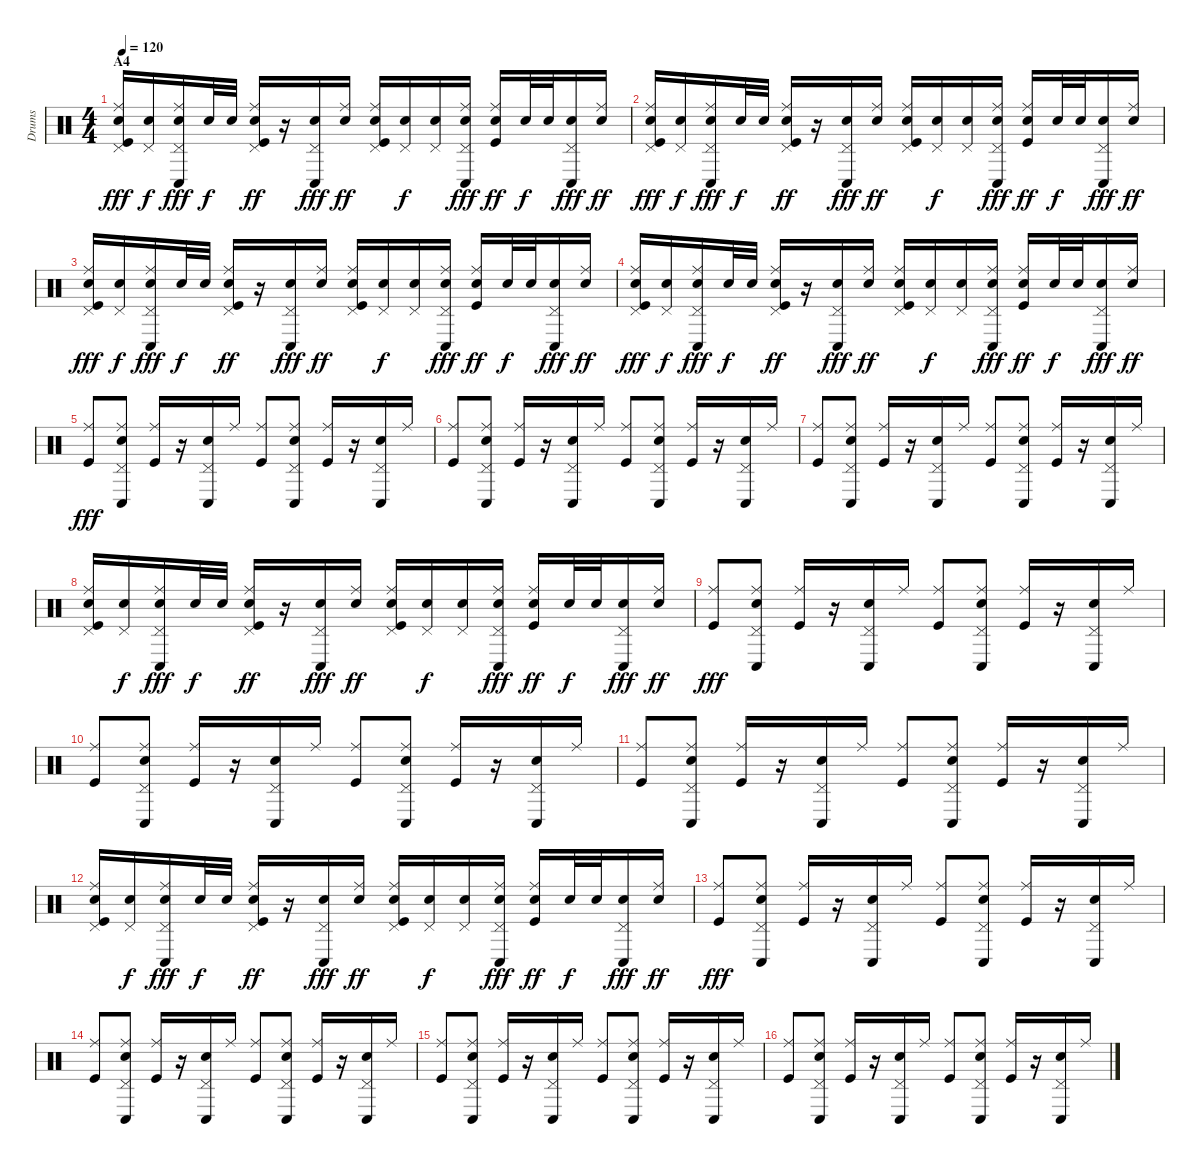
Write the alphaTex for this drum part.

\track ("Drums" "Drums") {instrument percussion}
\staff {score}
\articulation defaults
\ts (4 4)
\section ("" "A4")
\tempo 120
\clef neutral
\ks c
("Ride (middle)" "Pedal Hi-Hat (hit)" "Electric Snare (hit)" "Kick (hit)").16{dy fff} ("Pedal Hi-Hat (hit)" "Electric Snare (hit)").16{dy f} ("Ride (middle)" "Pedal Hi-Hat (hit)" "Conga low (hit)" "Electric Snare (hit)").16{dy fff} "Electric Snare (hit)".32{dy f} "Electric Snare (hit)".32 ("Ride (middle)" "Pedal Hi-Hat (hit)" "Electric Snare (hit)" "Kick (hit)").16{dy ff} r.16 ("Pedal Hi-Hat (hit)" "Conga low (hit)" "Electric Snare (hit)").16{dy fff} ("Ride (middle)" "Electric Snare (hit)").16{dy ff} ("Ride (middle)" "Pedal Hi-Hat (hit)" "Electric Snare (hit)" "Kick (hit)").16 ("Pedal Hi-Hat (hit)" "Electric Snare (hit)").16{dy f} ("Pedal Hi-Hat (hit)" "Electric Snare (hit)").16 ("Ride (middle)" "Pedal Hi-Hat (hit)" "Conga low (hit)" "Electric Snare (hit)").16{dy fff} ("Ride (middle)" "Electric Snare (hit)" "Kick (hit)").16{dy ff} "Electric Snare (hit)".32{dy f} "Electric Snare (hit)".32 ("Pedal Hi-Hat (hit)" "Conga low (hit)" "Electric Snare (hit)").16{dy fff} ("Ride (middle)" "Electric Snare (hit)").16{dy ff} |
("Ride (middle)" "Pedal Hi-Hat (hit)" "Electric Snare (hit)" "Kick (hit)").16{dy fff} ("Pedal Hi-Hat (hit)" "Electric Snare (hit)").16{dy f} ("Ride (middle)" "Pedal Hi-Hat (hit)" "Conga low (hit)" "Electric Snare (hit)").16{dy fff} "Electric Snare (hit)".32{dy f} "Electric Snare (hit)".32 ("Ride (middle)" "Pedal Hi-Hat (hit)" "Electric Snare (hit)" "Kick (hit)").16{dy ff} r.16 ("Pedal Hi-Hat (hit)" "Conga low (hit)" "Electric Snare (hit)").16{dy fff} ("Ride (middle)" "Electric Snare (hit)").16{dy ff} ("Ride (middle)" "Pedal Hi-Hat (hit)" "Electric Snare (hit)" "Kick (hit)").16 ("Pedal Hi-Hat (hit)" "Electric Snare (hit)").16{dy f} ("Pedal Hi-Hat (hit)" "Electric Snare (hit)").16 ("Ride (middle)" "Pedal Hi-Hat (hit)" "Conga low (hit)" "Electric Snare (hit)").16{dy fff} ("Ride (middle)" "Electric Snare (hit)" "Kick (hit)").16{dy ff} "Electric Snare (hit)".32{dy f} "Electric Snare (hit)".32 ("Pedal Hi-Hat (hit)" "Conga low (hit)" "Electric Snare (hit)").16{dy fff} ("Ride (middle)" "Electric Snare (hit)").16{dy ff} |
("Ride (middle)" "Pedal Hi-Hat (hit)" "Electric Snare (hit)" "Kick (hit)").16{dy fff} ("Pedal Hi-Hat (hit)" "Electric Snare (hit)").16{dy f} ("Ride (middle)" "Pedal Hi-Hat (hit)" "Conga low (hit)" "Electric Snare (hit)").16{dy fff} "Electric Snare (hit)".32{dy f} "Electric Snare (hit)".32 ("Ride (middle)" "Pedal Hi-Hat (hit)" "Electric Snare (hit)" "Kick (hit)").16{dy ff} r.16 ("Pedal Hi-Hat (hit)" "Conga low (hit)" "Electric Snare (hit)").16{dy fff} ("Ride (middle)" "Electric Snare (hit)").16{dy ff} ("Ride (middle)" "Pedal Hi-Hat (hit)" "Electric Snare (hit)" "Kick (hit)").16 ("Pedal Hi-Hat (hit)" "Electric Snare (hit)").16{dy f} ("Pedal Hi-Hat (hit)" "Electric Snare (hit)").16 ("Ride (middle)" "Pedal Hi-Hat (hit)" "Conga low (hit)" "Electric Snare (hit)").16{dy fff} ("Ride (middle)" "Electric Snare (hit)" "Kick (hit)").16{dy ff} "Electric Snare (hit)".32{dy f} "Electric Snare (hit)".32 ("Pedal Hi-Hat (hit)" "Conga low (hit)" "Electric Snare (hit)").16{dy fff} ("Ride (middle)" "Electric Snare (hit)").16{dy ff} |
("Ride (middle)" "Pedal Hi-Hat (hit)" "Electric Snare (hit)" "Kick (hit)").16{dy fff} ("Pedal Hi-Hat (hit)" "Electric Snare (hit)").16{dy f} ("Ride (middle)" "Pedal Hi-Hat (hit)" "Conga low (hit)" "Electric Snare (hit)").16{dy fff} "Electric Snare (hit)".32{dy f} "Electric Snare (hit)".32 ("Ride (middle)" "Pedal Hi-Hat (hit)" "Electric Snare (hit)" "Kick (hit)").16{dy ff} r.16 ("Pedal Hi-Hat (hit)" "Conga low (hit)" "Electric Snare (hit)").16{dy fff} ("Ride (middle)" "Electric Snare (hit)").16{dy ff} ("Ride (middle)" "Pedal Hi-Hat (hit)" "Electric Snare (hit)" "Kick (hit)").16 ("Pedal Hi-Hat (hit)" "Electric Snare (hit)").16{dy f} ("Pedal Hi-Hat (hit)" "Electric Snare (hit)").16 ("Ride (middle)" "Pedal Hi-Hat (hit)" "Conga low (hit)" "Electric Snare (hit)").16{dy fff} ("Ride (middle)" "Electric Snare (hit)" "Kick (hit)").16{dy ff} "Electric Snare (hit)".32{dy f} "Electric Snare (hit)".32 ("Pedal Hi-Hat (hit)" "Conga low (hit)" "Electric Snare (hit)").16{dy fff} ("Ride (middle)" "Electric Snare (hit)").16{dy ff} |
("Ride (middle)" "Kick (hit)").8{dy fff} ("Ride (middle)" "Pedal Hi-Hat (hit)" "Conga low (hit)" "Electric Snare (hit)").8 ("Ride (middle)" "Kick (hit)").16 r.16 ("Pedal Hi-Hat (hit)" "Conga low (hit)" "Electric Snare (hit)").16 "Ride (middle)".16 ("Ride (middle)" "Kick (hit)").8 ("Ride (middle)" "Pedal Hi-Hat (hit)" "Conga low (hit)" "Electric Snare (hit)").8 ("Ride (middle)" "Kick (hit)").16 r.16 ("Pedal Hi-Hat (hit)" "Conga low (hit)" "Electric Snare (hit)").16 "Ride (middle)".16 |
("Ride (middle)" "Kick (hit)").8 ("Ride (middle)" "Pedal Hi-Hat (hit)" "Conga low (hit)" "Electric Snare (hit)").8 ("Ride (middle)" "Kick (hit)").16 r.16 ("Pedal Hi-Hat (hit)" "Conga low (hit)" "Electric Snare (hit)").16 "Ride (middle)".16 ("Ride (middle)" "Kick (hit)").8 ("Ride (middle)" "Pedal Hi-Hat (hit)" "Conga low (hit)" "Electric Snare (hit)").8 ("Ride (middle)" "Kick (hit)").16 r.16 ("Pedal Hi-Hat (hit)" "Conga low (hit)" "Electric Snare (hit)").16 "Ride (middle)".16 |
("Ride (middle)" "Kick (hit)").8 ("Ride (middle)" "Pedal Hi-Hat (hit)" "Conga low (hit)" "Electric Snare (hit)").8 ("Ride (middle)" "Kick (hit)").16 r.16 ("Pedal Hi-Hat (hit)" "Conga low (hit)" "Electric Snare (hit)").16 "Ride (middle)".16 ("Ride (middle)" "Kick (hit)").8 ("Ride (middle)" "Pedal Hi-Hat (hit)" "Conga low (hit)" "Electric Snare (hit)").8 ("Ride (middle)" "Kick (hit)").16 r.16 ("Pedal Hi-Hat (hit)" "Conga low (hit)" "Electric Snare (hit)").16 "Ride (middle)".16 |
("Ride (middle)" "Pedal Hi-Hat (hit)" "Electric Snare (hit)" "Kick (hit)").16 ("Pedal Hi-Hat (hit)" "Electric Snare (hit)").16{dy f} ("Ride (middle)" "Pedal Hi-Hat (hit)" "Conga low (hit)" "Electric Snare (hit)").16{dy fff} "Electric Snare (hit)".32{dy f} "Electric Snare (hit)".32 ("Ride (middle)" "Pedal Hi-Hat (hit)" "Electric Snare (hit)" "Kick (hit)").16{dy ff} r.16 ("Pedal Hi-Hat (hit)" "Conga low (hit)" "Electric Snare (hit)").16{dy fff} ("Ride (middle)" "Electric Snare (hit)").16{dy ff} ("Ride (middle)" "Pedal Hi-Hat (hit)" "Electric Snare (hit)" "Kick (hit)").16 ("Pedal Hi-Hat (hit)" "Electric Snare (hit)").16{dy f} ("Pedal Hi-Hat (hit)" "Electric Snare (hit)").16 ("Ride (middle)" "Pedal Hi-Hat (hit)" "Conga low (hit)" "Electric Snare (hit)").16{dy fff} ("Ride (middle)" "Electric Snare (hit)" "Kick (hit)").16{dy ff} "Electric Snare (hit)".32{dy f} "Electric Snare (hit)".32 ("Pedal Hi-Hat (hit)" "Conga low (hit)" "Electric Snare (hit)").16{dy fff} ("Ride (middle)" "Electric Snare (hit)").16{dy ff} |
("Ride (middle)" "Kick (hit)").8{dy fff} ("Ride (middle)" "Pedal Hi-Hat (hit)" "Conga low (hit)" "Electric Snare (hit)").8 ("Ride (middle)" "Kick (hit)").16 r.16 ("Pedal Hi-Hat (hit)" "Conga low (hit)" "Electric Snare (hit)").16 "Ride (middle)".16 ("Ride (middle)" "Kick (hit)").8 ("Ride (middle)" "Pedal Hi-Hat (hit)" "Conga low (hit)" "Electric Snare (hit)").8 ("Ride (middle)" "Kick (hit)").16 r.16 ("Pedal Hi-Hat (hit)" "Conga low (hit)" "Electric Snare (hit)").16 "Ride (middle)".16 |
("Ride (middle)" "Kick (hit)").8 ("Ride (middle)" "Pedal Hi-Hat (hit)" "Conga low (hit)" "Electric Snare (hit)").8 ("Ride (middle)" "Kick (hit)").16 r.16 ("Pedal Hi-Hat (hit)" "Conga low (hit)" "Electric Snare (hit)").16 "Ride (middle)".16 ("Ride (middle)" "Kick (hit)").8 ("Ride (middle)" "Pedal Hi-Hat (hit)" "Conga low (hit)" "Electric Snare (hit)").8 ("Ride (middle)" "Kick (hit)").16 r.16 ("Pedal Hi-Hat (hit)" "Conga low (hit)" "Electric Snare (hit)").16 "Ride (middle)".16 |
("Ride (middle)" "Kick (hit)").8 ("Ride (middle)" "Pedal Hi-Hat (hit)" "Conga low (hit)" "Electric Snare (hit)").8 ("Ride (middle)" "Kick (hit)").16 r.16 ("Pedal Hi-Hat (hit)" "Conga low (hit)" "Electric Snare (hit)").16 "Ride (middle)".16 ("Ride (middle)" "Kick (hit)").8 ("Ride (middle)" "Pedal Hi-Hat (hit)" "Conga low (hit)" "Electric Snare (hit)").8 ("Ride (middle)" "Kick (hit)").16 r.16 ("Pedal Hi-Hat (hit)" "Conga low (hit)" "Electric Snare (hit)").16 "Ride (middle)".16 |
("Ride (middle)" "Pedal Hi-Hat (hit)" "Electric Snare (hit)" "Kick (hit)").16 ("Pedal Hi-Hat (hit)" "Electric Snare (hit)").16{dy f} ("Ride (middle)" "Pedal Hi-Hat (hit)" "Conga low (hit)" "Electric Snare (hit)").16{dy fff} "Electric Snare (hit)".32{dy f} "Electric Snare (hit)".32 ("Ride (middle)" "Pedal Hi-Hat (hit)" "Electric Snare (hit)" "Kick (hit)").16{dy ff} r.16 ("Pedal Hi-Hat (hit)" "Conga low (hit)" "Electric Snare (hit)").16{dy fff} ("Ride (middle)" "Electric Snare (hit)").16{dy ff} ("Ride (middle)" "Pedal Hi-Hat (hit)" "Electric Snare (hit)" "Kick (hit)").16 ("Pedal Hi-Hat (hit)" "Electric Snare (hit)").16{dy f} ("Pedal Hi-Hat (hit)" "Electric Snare (hit)").16 ("Ride (middle)" "Pedal Hi-Hat (hit)" "Conga low (hit)" "Electric Snare (hit)").16{dy fff} ("Ride (middle)" "Electric Snare (hit)" "Kick (hit)").16{dy ff} "Electric Snare (hit)".32{dy f} "Electric Snare (hit)".32 ("Pedal Hi-Hat (hit)" "Conga low (hit)" "Electric Snare (hit)").16{dy fff} ("Ride (middle)" "Electric Snare (hit)").16{dy ff} |
("Ride (middle)" "Kick (hit)").8{dy fff} ("Ride (middle)" "Pedal Hi-Hat (hit)" "Conga low (hit)" "Electric Snare (hit)").8 ("Ride (middle)" "Kick (hit)").16 r.16 ("Pedal Hi-Hat (hit)" "Conga low (hit)" "Electric Snare (hit)").16 "Ride (middle)".16 ("Ride (middle)" "Kick (hit)").8 ("Ride (middle)" "Pedal Hi-Hat (hit)" "Conga low (hit)" "Electric Snare (hit)").8 ("Ride (middle)" "Kick (hit)").16 r.16 ("Pedal Hi-Hat (hit)" "Conga low (hit)" "Electric Snare (hit)").16 "Ride (middle)".16 |
("Ride (middle)" "Kick (hit)").8 ("Ride (middle)" "Pedal Hi-Hat (hit)" "Conga low (hit)" "Electric Snare (hit)").8 ("Ride (middle)" "Kick (hit)").16 r.16 ("Pedal Hi-Hat (hit)" "Conga low (hit)" "Electric Snare (hit)").16 "Ride (middle)".16 ("Ride (middle)" "Kick (hit)").8 ("Ride (middle)" "Pedal Hi-Hat (hit)" "Conga low (hit)" "Electric Snare (hit)").8 ("Ride (middle)" "Kick (hit)").16 r.16 ("Pedal Hi-Hat (hit)" "Conga low (hit)" "Electric Snare (hit)").16 "Ride (middle)".16 |
("Ride (middle)" "Kick (hit)").8 ("Ride (middle)" "Pedal Hi-Hat (hit)" "Conga low (hit)" "Electric Snare (hit)").8 ("Ride (middle)" "Kick (hit)").16 r.16 ("Pedal Hi-Hat (hit)" "Conga low (hit)" "Electric Snare (hit)").16 "Ride (middle)".16 ("Ride (middle)" "Kick (hit)").8 ("Ride (middle)" "Pedal Hi-Hat (hit)" "Conga low (hit)" "Electric Snare (hit)").8 ("Ride (middle)" "Kick (hit)").16 r.16 ("Pedal Hi-Hat (hit)" "Conga low (hit)" "Electric Snare (hit)").16 "Ride (middle)".16 |
("Ride (middle)" "Kick (hit)").8 ("Ride (middle)" "Pedal Hi-Hat (hit)" "Conga low (hit)" "Electric Snare (hit)").8 ("Ride (middle)" "Kick (hit)").16 r.16 ("Pedal Hi-Hat (hit)" "Conga low (hit)" "Electric Snare (hit)").16 "Ride (middle)".16 ("Ride (middle)" "Kick (hit)").8 ("Ride (middle)" "Pedal Hi-Hat (hit)" "Conga low (hit)" "Electric Snare (hit)").8 ("Ride (middle)" "Kick (hit)").16 r.16 ("Pedal Hi-Hat (hit)" "Conga low (hit)" "Electric Snare (hit)").16 "Ride (middle)".16
